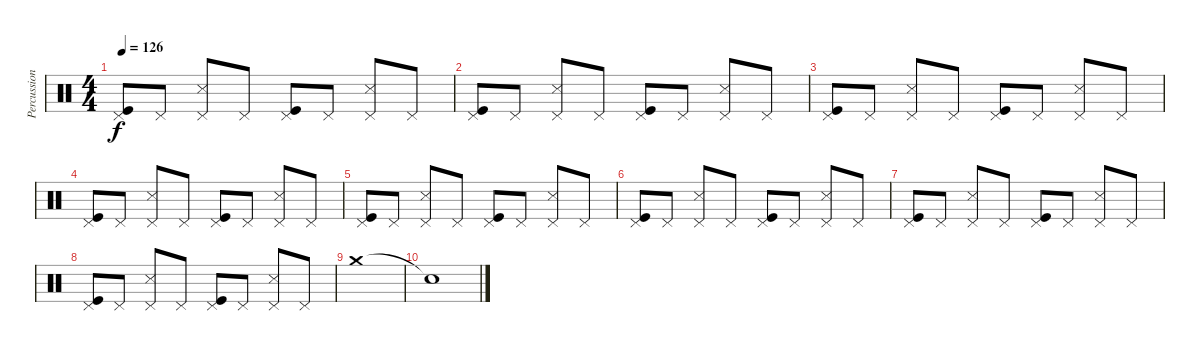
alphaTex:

\track ("Percussion" "Percussion") {instrument percussion}
\staff {score}
\articulation defaults
\ts (4 4)
\tempo 126
\clef neutral
\ks c
("Pedal Hi-Hat (hit)" "Kick (hit)").8{dy f} "Pedal Hi-Hat (hit)".8 ("Pedal Hi-Hat (hit)" "Snare (side stick) 3").8 "Pedal Hi-Hat (hit)".8 ("Pedal Hi-Hat (hit)" "Kick (hit)").8 "Pedal Hi-Hat (hit)".8 ("Pedal Hi-Hat (hit)" "Snare (side stick) 3").8 "Pedal Hi-Hat (hit)".8 |
("Pedal Hi-Hat (hit)" "Kick (hit)").8 "Pedal Hi-Hat (hit)".8 ("Pedal Hi-Hat (hit)" "Snare (side stick) 3").8 "Pedal Hi-Hat (hit)".8 ("Pedal Hi-Hat (hit)" "Kick (hit)").8 "Pedal Hi-Hat (hit)".8 ("Pedal Hi-Hat (hit)" "Snare (side stick) 3").8 "Pedal Hi-Hat (hit)".8 |
("Pedal Hi-Hat (hit)" "Kick (hit)").8 "Pedal Hi-Hat (hit)".8 ("Pedal Hi-Hat (hit)" "Snare (side stick) 3").8 "Pedal Hi-Hat (hit)".8 ("Pedal Hi-Hat (hit)" "Kick (hit)").8 "Pedal Hi-Hat (hit)".8 ("Pedal Hi-Hat (hit)" "Snare (side stick) 3").8 "Pedal Hi-Hat (hit)".8 |
("Pedal Hi-Hat (hit)" "Kick (hit)").8 "Pedal Hi-Hat (hit)".8 ("Pedal Hi-Hat (hit)" "Snare (side stick) 3").8 "Pedal Hi-Hat (hit)".8 ("Pedal Hi-Hat (hit)" "Kick (hit)").8 "Pedal Hi-Hat (hit)".8 ("Pedal Hi-Hat (hit)" "Snare (side stick) 3").8 "Pedal Hi-Hat (hit)".8 |
("Pedal Hi-Hat (hit)" "Kick (hit)").8 "Pedal Hi-Hat (hit)".8 ("Pedal Hi-Hat (hit)" "Snare (side stick) 3").8 "Pedal Hi-Hat (hit)".8 ("Pedal Hi-Hat (hit)" "Kick (hit)").8 "Pedal Hi-Hat (hit)".8 ("Pedal Hi-Hat (hit)" "Snare (side stick) 3").8 "Pedal Hi-Hat (hit)".8 |
("Pedal Hi-Hat (hit)" "Kick (hit)").8 "Pedal Hi-Hat (hit)".8 ("Pedal Hi-Hat (hit)" "Snare (side stick) 3").8 "Pedal Hi-Hat (hit)".8 ("Pedal Hi-Hat (hit)" "Kick (hit)").8 "Pedal Hi-Hat (hit)".8 ("Pedal Hi-Hat (hit)" "Snare (side stick) 3").8 "Pedal Hi-Hat (hit)".8 |
("Pedal Hi-Hat (hit)" "Kick (hit)").8 "Pedal Hi-Hat (hit)".8 ("Pedal Hi-Hat (hit)" "Snare (side stick) 3").8 "Pedal Hi-Hat (hit)".8 ("Pedal Hi-Hat (hit)" "Kick (hit)").8 "Pedal Hi-Hat (hit)".8 ("Pedal Hi-Hat (hit)" "Snare (side stick) 3").8 "Pedal Hi-Hat (hit)".8 |
("Pedal Hi-Hat (hit)" "Kick (hit)").8 "Pedal Hi-Hat (hit)".8 ("Pedal Hi-Hat (hit)" "Snare (side stick) 3").8 "Pedal Hi-Hat (hit)".8 ("Pedal Hi-Hat (hit)" "Kick (hit)").8 "Pedal Hi-Hat (hit)".8 ("Pedal Hi-Hat (hit)" "Snare (side stick) 3").8 "Pedal Hi-Hat (hit)".8 |
"Crash medium (hit)".1 |
"Snare (hit)"{t}.1
